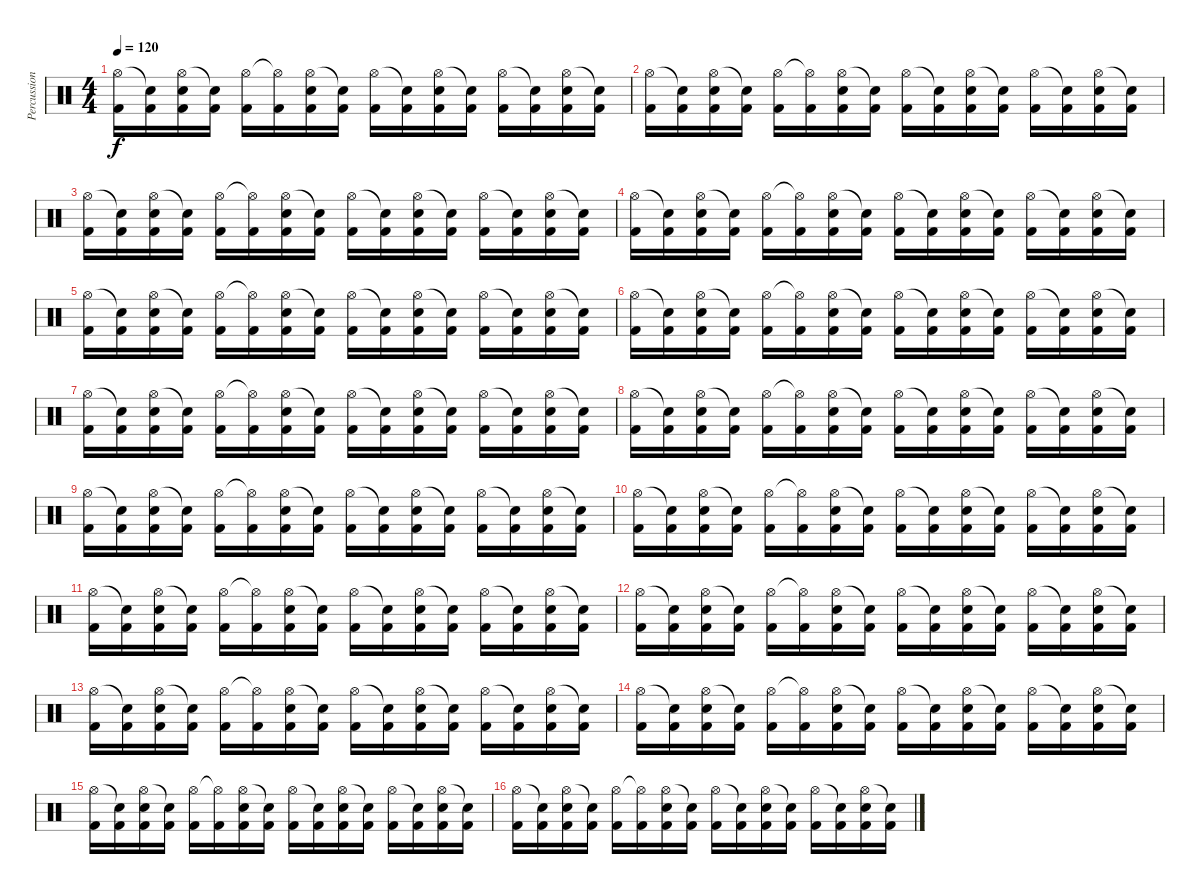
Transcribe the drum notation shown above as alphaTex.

\track ("Percussions" "Percussion") {instrument percussion}
\staff {score}
\articulation defaults
\ts (4 4)
\tempo 120
\clef neutral
\ks c
("Hi-Hat (open)" "Kick (hit) 2").16{dy f} ("Snare (hit)"{t} "Kick (hit) 2").16 ("Hi-Hat (open)" "Electric Snare (hit)" "Kick (hit) 2").16 ("Snare (hit)"{t} "Kick (hit) 2").16 ("Hi-Hat (open)" "Kick (hit) 2").16 ("Hi-Hat (open)"{t} "Kick (hit) 2").16 ("Hi-Hat (open)" "Electric Snare (hit)" "Kick (hit) 2").16 ("Snare (hit)"{t} "Kick (hit) 2").16 ("Hi-Hat (open)" "Kick (hit) 2").16 ("Snare (hit)"{t} "Kick (hit) 2").16 ("Hi-Hat (open)" "Electric Snare (hit)" "Kick (hit) 2").16 ("Snare (hit)"{t} "Kick (hit) 2").16 ("Hi-Hat (open)" "Kick (hit) 2").16 ("Snare (hit)"{t} "Kick (hit) 2").16 ("Hi-Hat (open)" "Electric Snare (hit)" "Kick (hit) 2").16 ("Snare (hit)"{t} "Kick (hit) 2").16 |
("Hi-Hat (open)" "Kick (hit) 2").16 ("Snare (hit)"{t} "Kick (hit) 2").16 ("Hi-Hat (open)" "Electric Snare (hit)" "Kick (hit) 2").16 ("Snare (hit)"{t} "Kick (hit) 2").16 ("Hi-Hat (open)" "Kick (hit) 2").16 ("Hi-Hat (open)"{t} "Kick (hit) 2").16 ("Hi-Hat (open)" "Electric Snare (hit)" "Kick (hit) 2").16 ("Snare (hit)"{t} "Kick (hit) 2").16 ("Hi-Hat (open)" "Kick (hit) 2").16 ("Snare (hit)"{t} "Kick (hit) 2").16 ("Hi-Hat (open)" "Electric Snare (hit)" "Kick (hit) 2").16 ("Snare (hit)"{t} "Kick (hit) 2").16 ("Hi-Hat (open)" "Kick (hit) 2").16 ("Snare (hit)"{t} "Kick (hit) 2").16 ("Hi-Hat (open)" "Electric Snare (hit)" "Kick (hit) 2").16 ("Snare (hit)"{t} "Kick (hit) 2").16 |
("Hi-Hat (open)" "Kick (hit) 2").16 ("Snare (hit)"{t} "Kick (hit) 2").16 ("Hi-Hat (open)" "Electric Snare (hit)" "Kick (hit) 2").16 ("Snare (hit)"{t} "Kick (hit) 2").16 ("Hi-Hat (open)" "Kick (hit) 2").16 ("Hi-Hat (open)"{t} "Kick (hit) 2").16 ("Hi-Hat (open)" "Electric Snare (hit)" "Kick (hit) 2").16 ("Snare (hit)"{t} "Kick (hit) 2").16 ("Hi-Hat (open)" "Kick (hit) 2").16 ("Snare (hit)"{t} "Kick (hit) 2").16 ("Hi-Hat (open)" "Electric Snare (hit)" "Kick (hit) 2").16 ("Snare (hit)"{t} "Kick (hit) 2").16 ("Hi-Hat (open)" "Kick (hit) 2").16 ("Snare (hit)"{t} "Kick (hit) 2").16 ("Hi-Hat (open)" "Electric Snare (hit)" "Kick (hit) 2").16 ("Snare (hit)"{t} "Kick (hit) 2").16 |
("Hi-Hat (open)" "Kick (hit) 2").16 ("Snare (hit)"{t} "Kick (hit) 2").16 ("Hi-Hat (open)" "Electric Snare (hit)" "Kick (hit) 2").16 ("Snare (hit)"{t} "Kick (hit) 2").16 ("Hi-Hat (open)" "Kick (hit) 2").16 ("Hi-Hat (open)"{t} "Kick (hit) 2").16 ("Hi-Hat (open)" "Electric Snare (hit)" "Kick (hit) 2").16 ("Snare (hit)"{t} "Kick (hit) 2").16 ("Hi-Hat (open)" "Kick (hit) 2").16 ("Snare (hit)"{t} "Kick (hit) 2").16 ("Hi-Hat (open)" "Electric Snare (hit)" "Kick (hit) 2").16 ("Snare (hit)"{t} "Kick (hit) 2").16 ("Hi-Hat (open)" "Kick (hit) 2").16 ("Snare (hit)"{t} "Kick (hit) 2").16 ("Hi-Hat (open)" "Electric Snare (hit)" "Kick (hit) 2").16 ("Snare (hit)"{t} "Kick (hit) 2").16 |
("Hi-Hat (open)" "Kick (hit) 2").16 ("Snare (hit)"{t} "Kick (hit) 2").16 ("Hi-Hat (open)" "Electric Snare (hit)" "Kick (hit) 2").16 ("Snare (hit)"{t} "Kick (hit) 2").16 ("Hi-Hat (open)" "Kick (hit) 2").16 ("Hi-Hat (open)"{t} "Kick (hit) 2").16 ("Hi-Hat (open)" "Electric Snare (hit)" "Kick (hit) 2").16 ("Snare (hit)"{t} "Kick (hit) 2").16 ("Hi-Hat (open)" "Kick (hit) 2").16 ("Snare (hit)"{t} "Kick (hit) 2").16 ("Hi-Hat (open)" "Electric Snare (hit)" "Kick (hit) 2").16 ("Snare (hit)"{t} "Kick (hit) 2").16 ("Hi-Hat (open)" "Kick (hit) 2").16 ("Snare (hit)"{t} "Kick (hit) 2").16 ("Hi-Hat (open)" "Electric Snare (hit)" "Kick (hit) 2").16 ("Snare (hit)"{t} "Kick (hit) 2").16 |
("Hi-Hat (open)" "Kick (hit) 2").16 ("Snare (hit)"{t} "Kick (hit) 2").16 ("Hi-Hat (open)" "Electric Snare (hit)" "Kick (hit) 2").16 ("Snare (hit)"{t} "Kick (hit) 2").16 ("Hi-Hat (open)" "Kick (hit) 2").16 ("Hi-Hat (open)"{t} "Kick (hit) 2").16 ("Hi-Hat (open)" "Electric Snare (hit)" "Kick (hit) 2").16 ("Snare (hit)"{t} "Kick (hit) 2").16 ("Hi-Hat (open)" "Kick (hit) 2").16 ("Snare (hit)"{t} "Kick (hit) 2").16 ("Hi-Hat (open)" "Electric Snare (hit)" "Kick (hit) 2").16 ("Snare (hit)"{t} "Kick (hit) 2").16 ("Hi-Hat (open)" "Kick (hit) 2").16 ("Snare (hit)"{t} "Kick (hit) 2").16 ("Hi-Hat (open)" "Electric Snare (hit)" "Kick (hit) 2").16 ("Snare (hit)"{t} "Kick (hit) 2").16 |
("Hi-Hat (open)" "Kick (hit) 2").16 ("Snare (hit)"{t} "Kick (hit) 2").16 ("Hi-Hat (open)" "Electric Snare (hit)" "Kick (hit) 2").16 ("Snare (hit)"{t} "Kick (hit) 2").16 ("Hi-Hat (open)" "Kick (hit) 2").16 ("Hi-Hat (open)"{t} "Kick (hit) 2").16 ("Hi-Hat (open)" "Electric Snare (hit)" "Kick (hit) 2").16 ("Snare (hit)"{t} "Kick (hit) 2").16 ("Hi-Hat (open)" "Kick (hit) 2").16 ("Snare (hit)"{t} "Kick (hit) 2").16 ("Hi-Hat (open)" "Electric Snare (hit)" "Kick (hit) 2").16 ("Snare (hit)"{t} "Kick (hit) 2").16 ("Hi-Hat (open)" "Kick (hit) 2").16 ("Snare (hit)"{t} "Kick (hit) 2").16 ("Hi-Hat (open)" "Electric Snare (hit)" "Kick (hit) 2").16 ("Snare (hit)"{t} "Kick (hit) 2").16 |
("Hi-Hat (open)" "Kick (hit) 2").16 ("Snare (hit)"{t} "Kick (hit) 2").16 ("Hi-Hat (open)" "Electric Snare (hit)" "Kick (hit) 2").16 ("Snare (hit)"{t} "Kick (hit) 2").16 ("Hi-Hat (open)" "Kick (hit) 2").16 ("Hi-Hat (open)"{t} "Kick (hit) 2").16 ("Hi-Hat (open)" "Electric Snare (hit)" "Kick (hit) 2").16 ("Snare (hit)"{t} "Kick (hit) 2").16 ("Hi-Hat (open)" "Kick (hit) 2").16 ("Snare (hit)"{t} "Kick (hit) 2").16 ("Hi-Hat (open)" "Electric Snare (hit)" "Kick (hit) 2").16 ("Snare (hit)"{t} "Kick (hit) 2").16 ("Hi-Hat (open)" "Kick (hit) 2").16 ("Snare (hit)"{t} "Kick (hit) 2").16 ("Hi-Hat (open)" "Electric Snare (hit)" "Kick (hit) 2").16 ("Snare (hit)"{t} "Kick (hit) 2").16 |
("Hi-Hat (open)" "Kick (hit) 2").16 ("Snare (hit)"{t} "Kick (hit) 2").16 ("Hi-Hat (open)" "Electric Snare (hit)" "Kick (hit) 2").16 ("Snare (hit)"{t} "Kick (hit) 2").16 ("Hi-Hat (open)" "Kick (hit) 2").16 ("Hi-Hat (open)"{t} "Kick (hit) 2").16 ("Hi-Hat (open)" "Electric Snare (hit)" "Kick (hit) 2").16 ("Snare (hit)"{t} "Kick (hit) 2").16 ("Hi-Hat (open)" "Kick (hit) 2").16 ("Snare (hit)"{t} "Kick (hit) 2").16 ("Hi-Hat (open)" "Electric Snare (hit)" "Kick (hit) 2").16 ("Snare (hit)"{t} "Kick (hit) 2").16 ("Hi-Hat (open)" "Kick (hit) 2").16 ("Snare (hit)"{t} "Kick (hit) 2").16 ("Hi-Hat (open)" "Electric Snare (hit)" "Kick (hit) 2").16 ("Snare (hit)"{t} "Kick (hit) 2").16 |
("Hi-Hat (open)" "Kick (hit) 2").16 ("Snare (hit)"{t} "Kick (hit) 2").16 ("Hi-Hat (open)" "Electric Snare (hit)" "Kick (hit) 2").16 ("Snare (hit)"{t} "Kick (hit) 2").16 ("Hi-Hat (open)" "Kick (hit) 2").16 ("Hi-Hat (open)"{t} "Kick (hit) 2").16 ("Hi-Hat (open)" "Electric Snare (hit)" "Kick (hit) 2").16 ("Snare (hit)"{t} "Kick (hit) 2").16 ("Hi-Hat (open)" "Kick (hit) 2").16 ("Snare (hit)"{t} "Kick (hit) 2").16 ("Hi-Hat (open)" "Electric Snare (hit)" "Kick (hit) 2").16 ("Snare (hit)"{t} "Kick (hit) 2").16 ("Hi-Hat (open)" "Kick (hit) 2").16 ("Snare (hit)"{t} "Kick (hit) 2").16 ("Hi-Hat (open)" "Electric Snare (hit)" "Kick (hit) 2").16 ("Snare (hit)"{t} "Kick (hit) 2").16 |
("Hi-Hat (open)" "Kick (hit) 2").16 ("Snare (hit)"{t} "Kick (hit) 2").16 ("Hi-Hat (open)" "Electric Snare (hit)" "Kick (hit) 2").16 ("Snare (hit)"{t} "Kick (hit) 2").16 ("Hi-Hat (open)" "Kick (hit) 2").16 ("Hi-Hat (open)"{t} "Kick (hit) 2").16 ("Hi-Hat (open)" "Electric Snare (hit)" "Kick (hit) 2").16 ("Snare (hit)"{t} "Kick (hit) 2").16 ("Hi-Hat (open)" "Kick (hit) 2").16 ("Snare (hit)"{t} "Kick (hit) 2").16 ("Hi-Hat (open)" "Electric Snare (hit)" "Kick (hit) 2").16 ("Snare (hit)"{t} "Kick (hit) 2").16 ("Hi-Hat (open)" "Kick (hit) 2").16 ("Snare (hit)"{t} "Kick (hit) 2").16 ("Hi-Hat (open)" "Electric Snare (hit)" "Kick (hit) 2").16 ("Snare (hit)"{t} "Kick (hit) 2").16 |
("Hi-Hat (open)" "Kick (hit) 2").16 ("Snare (hit)"{t} "Kick (hit) 2").16 ("Hi-Hat (open)" "Electric Snare (hit)" "Kick (hit) 2").16 ("Snare (hit)"{t} "Kick (hit) 2").16 ("Hi-Hat (open)" "Kick (hit) 2").16 ("Hi-Hat (open)"{t} "Kick (hit) 2").16 ("Hi-Hat (open)" "Electric Snare (hit)" "Kick (hit) 2").16 ("Snare (hit)"{t} "Kick (hit) 2").16 ("Hi-Hat (open)" "Kick (hit) 2").16 ("Snare (hit)"{t} "Kick (hit) 2").16 ("Hi-Hat (open)" "Electric Snare (hit)" "Kick (hit) 2").16 ("Snare (hit)"{t} "Kick (hit) 2").16 ("Hi-Hat (open)" "Kick (hit) 2").16 ("Snare (hit)"{t} "Kick (hit) 2").16 ("Hi-Hat (open)" "Electric Snare (hit)" "Kick (hit) 2").16 ("Snare (hit)"{t} "Kick (hit) 2").16 |
("Hi-Hat (open)" "Kick (hit) 2").16 ("Snare (hit)"{t} "Kick (hit) 2").16 ("Hi-Hat (open)" "Electric Snare (hit)" "Kick (hit) 2").16 ("Snare (hit)"{t} "Kick (hit) 2").16 ("Hi-Hat (open)" "Kick (hit) 2").16 ("Hi-Hat (open)"{t} "Kick (hit) 2").16 ("Hi-Hat (open)" "Electric Snare (hit)" "Kick (hit) 2").16 ("Snare (hit)"{t} "Kick (hit) 2").16 ("Hi-Hat (open)" "Kick (hit) 2").16 ("Snare (hit)"{t} "Kick (hit) 2").16 ("Hi-Hat (open)" "Electric Snare (hit)" "Kick (hit) 2").16 ("Snare (hit)"{t} "Kick (hit) 2").16 ("Hi-Hat (open)" "Kick (hit) 2").16 ("Snare (hit)"{t} "Kick (hit) 2").16 ("Hi-Hat (open)" "Electric Snare (hit)" "Kick (hit) 2").16 ("Snare (hit)"{t} "Kick (hit) 2").16 |
("Hi-Hat (open)" "Kick (hit) 2").16 ("Snare (hit)"{t} "Kick (hit) 2").16 ("Hi-Hat (open)" "Electric Snare (hit)" "Kick (hit) 2").16 ("Snare (hit)"{t} "Kick (hit) 2").16 ("Hi-Hat (open)" "Kick (hit) 2").16 ("Hi-Hat (open)"{t} "Kick (hit) 2").16 ("Hi-Hat (open)" "Electric Snare (hit)" "Kick (hit) 2").16 ("Snare (hit)"{t} "Kick (hit) 2").16 ("Hi-Hat (open)" "Kick (hit) 2").16 ("Snare (hit)"{t} "Kick (hit) 2").16 ("Hi-Hat (open)" "Electric Snare (hit)" "Kick (hit) 2").16 ("Snare (hit)"{t} "Kick (hit) 2").16 ("Hi-Hat (open)" "Kick (hit) 2").16 ("Snare (hit)"{t} "Kick (hit) 2").16 ("Hi-Hat (open)" "Electric Snare (hit)" "Kick (hit) 2").16 ("Snare (hit)"{t} "Kick (hit) 2").16 |
("Hi-Hat (open)" "Kick (hit) 2").16 ("Snare (hit)"{t} "Kick (hit) 2").16 ("Hi-Hat (open)" "Electric Snare (hit)" "Kick (hit) 2").16 ("Snare (hit)"{t} "Kick (hit) 2").16 ("Hi-Hat (open)" "Kick (hit) 2").16 ("Hi-Hat (open)"{t} "Kick (hit) 2").16 ("Hi-Hat (open)" "Electric Snare (hit)" "Kick (hit) 2").16 ("Snare (hit)"{t} "Kick (hit) 2").16 ("Hi-Hat (open)" "Kick (hit) 2").16 ("Snare (hit)"{t} "Kick (hit) 2").16 ("Hi-Hat (open)" "Electric Snare (hit)" "Kick (hit) 2").16 ("Snare (hit)"{t} "Kick (hit) 2").16 ("Hi-Hat (open)" "Kick (hit) 2").16 ("Snare (hit)"{t} "Kick (hit) 2").16 ("Hi-Hat (open)" "Electric Snare (hit)" "Kick (hit) 2").16 ("Snare (hit)"{t} "Kick (hit) 2").16 |
("Hi-Hat (open)" "Kick (hit) 2").16 ("Snare (hit)"{t} "Kick (hit) 2").16 ("Hi-Hat (open)" "Electric Snare (hit)" "Kick (hit) 2").16 ("Snare (hit)"{t} "Kick (hit) 2").16 ("Hi-Hat (open)" "Kick (hit) 2").16 ("Hi-Hat (open)"{t} "Kick (hit) 2").16 ("Hi-Hat (open)" "Electric Snare (hit)" "Kick (hit) 2").16 ("Snare (hit)"{t} "Kick (hit) 2").16 ("Hi-Hat (open)" "Kick (hit) 2").16 ("Snare (hit)"{t} "Kick (hit) 2").16 ("Hi-Hat (open)" "Electric Snare (hit)" "Kick (hit) 2").16 ("Snare (hit)"{t} "Kick (hit) 2").16 ("Hi-Hat (open)" "Kick (hit) 2").16 ("Snare (hit)"{t} "Kick (hit) 2").16 ("Hi-Hat (open)" "Electric Snare (hit)" "Kick (hit) 2").16 ("Snare (hit)"{t} "Kick (hit) 2").16
